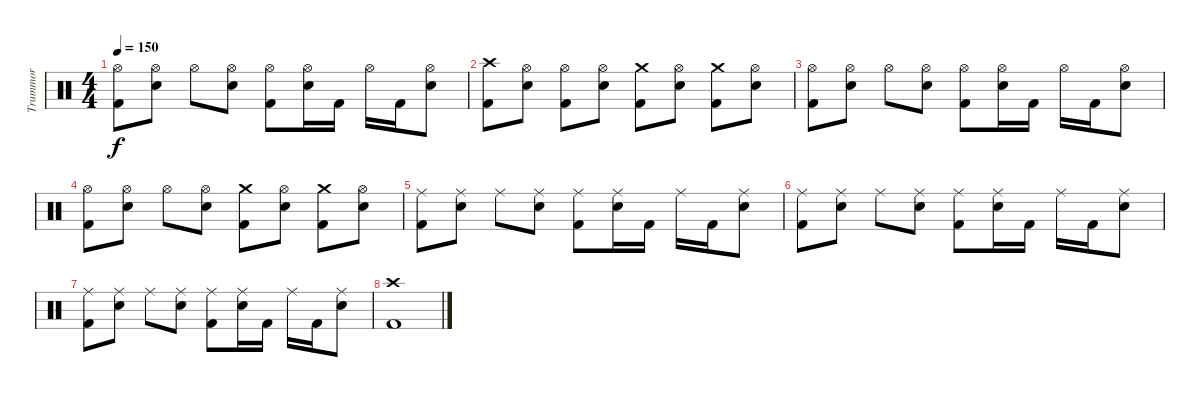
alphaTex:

\track ("Trummor" "Trummor") {instrument percussion}
\staff {score}
\articulation defaults
\ts (4 4)
\tempo 150
\clef neutral
\ks c
("Hi-Hat (open)" "Kick (hit) 2").8{dy f} ("Hi-Hat (open)" "Snare (hit) 2").8 "Hi-Hat (open)".8 ("Hi-Hat (open)" "Snare (hit) 2").8 ("Hi-Hat (open)" "Kick (hit) 2").8 ("Hi-Hat (open)" "Snare (hit) 2").16 "Kick (hit) 2".16 "Hi-Hat (open)".16 "Kick (hit) 2".16 ("Hi-Hat (open)" "Snare (hit) 2").8 |
("Crash high (hit)" "Kick (hit) 2").8 ("Hi-Hat (open)" "Snare (hit) 2").8 ("Hi-Hat (open)" "Kick (hit) 2").8 ("Hi-Hat (open)" "Snare (hit) 2").8 ("Crash medium (hit)" "Kick (hit) 2").8 ("Hi-Hat (open)" "Snare (hit) 2").8 ("Crash medium (hit)" "Kick (hit) 2").8 ("Hi-Hat (open)" "Snare (hit) 2").8 |
("Hi-Hat (open)" "Kick (hit) 2").8 ("Hi-Hat (open)" "Snare (hit) 2").8 "Hi-Hat (open)".8 ("Hi-Hat (open)" "Snare (hit) 2").8 ("Hi-Hat (open)" "Kick (hit) 2").8 ("Hi-Hat (open)" "Snare (hit) 2").16 "Kick (hit) 2".16 "Hi-Hat (open)".16 "Kick (hit) 2".16 ("Hi-Hat (open)" "Snare (hit) 2").8 |
("Hi-Hat (open)" "Kick (hit) 2").8 ("Hi-Hat (open)" "Snare (hit) 2").8 "Hi-Hat (open)".8 ("Hi-Hat (open)" "Snare (hit) 2").8 ("Crash medium (hit)" "Kick (hit) 2").8 ("Hi-Hat (open)" "Snare (hit) 2").8 ("Crash medium (hit)" "Kick (hit) 2").8 ("Hi-Hat (open)" "Snare (hit) 2").8 |
("Ride (middle)" "Kick (hit) 2").8 ("Ride (middle)" "Snare (hit) 2").8 "Ride (middle)".8 ("Ride (middle)" "Snare (hit) 2").8 ("Ride (middle)" "Kick (hit) 2").8 ("Ride (middle)" "Snare (hit) 2").16 "Kick (hit) 2".16 "Ride (middle)".16 "Kick (hit) 2".16 ("Ride (middle)" "Snare (hit) 2").8 |
("Ride (middle)" "Kick (hit) 2").8 ("Ride (middle)" "Snare (hit) 2").8 "Ride (middle)".8 ("Ride (middle)" "Snare (hit) 2").8 ("Ride (middle)" "Kick (hit) 2").8 ("Ride (middle)" "Snare (hit) 2").16 "Kick (hit) 2".16 "Ride (middle)".16 "Kick (hit) 2".16 ("Ride (middle)" "Snare (hit) 2").8 |
("Ride (middle)" "Kick (hit) 2").8 ("Ride (middle)" "Snare (hit) 2").8 "Ride (middle)".8 ("Ride (middle)" "Snare (hit) 2").8 ("Ride (middle)" "Kick (hit) 2").8 ("Ride (middle)" "Snare (hit) 2").16 "Kick (hit) 2".16 "Ride (middle)".16 "Kick (hit) 2".16 ("Ride (middle)" "Snare (hit) 2").8 |
("Crash high (hit)" "Kick (hit) 2").1
